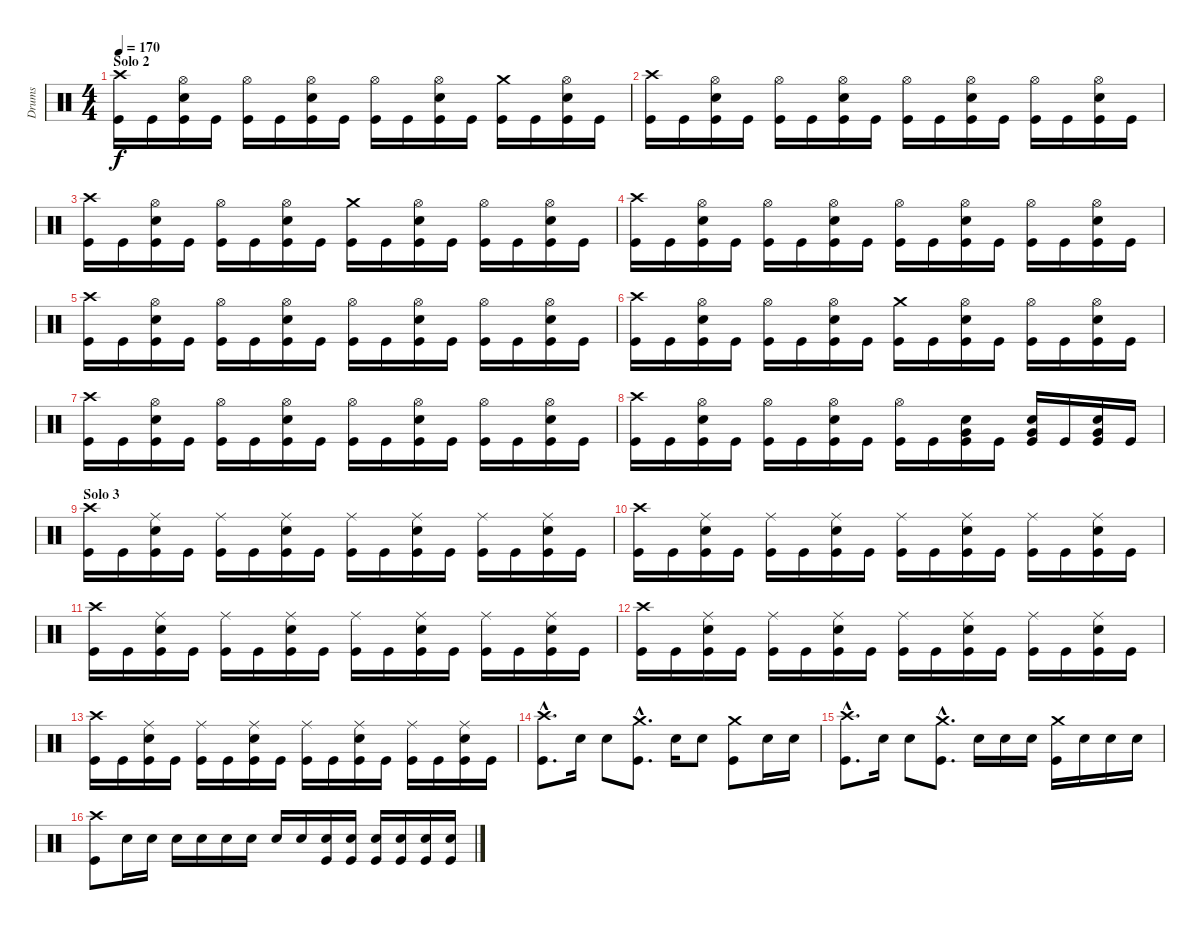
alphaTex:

\track ("Drums" "Drums") {instrument percussion}
\staff {score}
\articulation defaults
\ts (4 4)
\section ("" "Solo 2")
\tempo 170
\clef neutral
\ks c
("Crash high (hit)" "Kick (hit)").16{dy f} "Kick (hit)".16 ("Hi-Hat (open)" "Electric Snare (hit)" "Kick (hit)").16 "Kick (hit)".16 ("Hi-Hat (open)" "Kick (hit)").16 "Kick (hit)".16 ("Hi-Hat (open)" "Electric Snare (hit)" "Kick (hit)").16 "Kick (hit)".16 ("Hi-Hat (open)" "Kick (hit)").16 "Kick (hit)".16 ("Hi-Hat (open)" "Electric Snare (hit)" "Kick (hit)").16 "Kick (hit)".16 ("Crash medium (hit)" "Kick (hit)").16 "Kick (hit)".16 ("Hi-Hat (open)" "Electric Snare (hit)" "Kick (hit)").16 "Kick (hit)".16 |
("Crash high (hit)" "Kick (hit)").16 "Kick (hit)".16 ("Hi-Hat (open)" "Electric Snare (hit)" "Kick (hit)").16 "Kick (hit)".16 ("Hi-Hat (open)" "Kick (hit)").16 "Kick (hit)".16 ("Hi-Hat (open)" "Electric Snare (hit)" "Kick (hit)").16 "Kick (hit)".16 ("Hi-Hat (open)" "Kick (hit)").16 "Kick (hit)".16 ("Hi-Hat (open)" "Electric Snare (hit)" "Kick (hit)").16 "Kick (hit)".16 ("Hi-Hat (open)" "Kick (hit)").16 "Kick (hit)".16 ("Hi-Hat (open)" "Electric Snare (hit)" "Kick (hit)").16 "Kick (hit)".16 |
("Crash high (hit)" "Kick (hit)").16 "Kick (hit)".16 ("Hi-Hat (open)" "Electric Snare (hit)" "Kick (hit)").16 "Kick (hit)".16 ("Hi-Hat (open)" "Kick (hit)").16 "Kick (hit)".16 ("Hi-Hat (open)" "Electric Snare (hit)" "Kick (hit)").16 "Kick (hit)".16 ("Crash medium (hit)" "Kick (hit)").16 "Kick (hit)".16 ("Hi-Hat (open)" "Electric Snare (hit)" "Kick (hit)").16 "Kick (hit)".16 ("Hi-Hat (open)" "Kick (hit)").16 "Kick (hit)".16 ("Hi-Hat (open)" "Electric Snare (hit)" "Kick (hit)").16 "Kick (hit)".16 |
("Crash high (hit)" "Kick (hit)").16 "Kick (hit)".16 ("Hi-Hat (open)" "Electric Snare (hit)" "Kick (hit)").16 "Kick (hit)".16 ("Hi-Hat (open)" "Kick (hit)").16 "Kick (hit)".16 ("Hi-Hat (open)" "Electric Snare (hit)" "Kick (hit)").16 "Kick (hit)".16 ("Hi-Hat (open)" "Kick (hit)").16 "Kick (hit)".16 ("Hi-Hat (open)" "Electric Snare (hit)" "Kick (hit)").16 "Kick (hit)".16 ("Hi-Hat (open)" "Kick (hit)").16 "Kick (hit)".16 ("Hi-Hat (open)" "Electric Snare (hit)" "Kick (hit)").16 "Kick (hit)".16 |
("Crash high (hit)" "Kick (hit)").16 "Kick (hit)".16 ("Hi-Hat (open)" "Electric Snare (hit)" "Kick (hit)").16 "Kick (hit)".16 ("Hi-Hat (open)" "Kick (hit)").16 "Kick (hit)".16 ("Hi-Hat (open)" "Electric Snare (hit)" "Kick (hit)").16 "Kick (hit)".16 ("Hi-Hat (open)" "Kick (hit)").16 "Kick (hit)".16 ("Hi-Hat (open)" "Electric Snare (hit)" "Kick (hit)").16 "Kick (hit)".16 ("Hi-Hat (open)" "Kick (hit)").16 "Kick (hit)".16 ("Hi-Hat (open)" "Electric Snare (hit)" "Kick (hit)").16 "Kick (hit)".16 |
("Crash high (hit)" "Kick (hit)").16 "Kick (hit)".16 ("Hi-Hat (open)" "Electric Snare (hit)" "Kick (hit)").16 "Kick (hit)".16 ("Hi-Hat (open)" "Kick (hit)").16 "Kick (hit)".16 ("Hi-Hat (open)" "Electric Snare (hit)" "Kick (hit)").16 "Kick (hit)".16 ("Crash medium (hit)" "Kick (hit)").16 "Kick (hit)".16 ("Hi-Hat (open)" "Electric Snare (hit)" "Kick (hit)").16 "Kick (hit)".16 ("Hi-Hat (open)" "Kick (hit)").16 "Kick (hit)".16 ("Hi-Hat (open)" "Electric Snare (hit)" "Kick (hit)").16 "Kick (hit)".16 |
("Crash high (hit)" "Kick (hit)").16 "Kick (hit)".16 ("Hi-Hat (open)" "Electric Snare (hit)" "Kick (hit)").16 "Kick (hit)".16 ("Hi-Hat (open)" "Kick (hit)").16 "Kick (hit)".16 ("Hi-Hat (open)" "Electric Snare (hit)" "Kick (hit)").16 "Kick (hit)".16 ("Hi-Hat (open)" "Kick (hit)").16 "Kick (hit)".16 ("Hi-Hat (open)" "Electric Snare (hit)" "Kick (hit)").16 "Kick (hit)".16 ("Hi-Hat (open)" "Kick (hit)").16 "Kick (hit)".16 ("Hi-Hat (open)" "Electric Snare (hit)" "Kick (hit)").16 "Kick (hit)".16 |
("Crash high (hit)" "Kick (hit)").16 "Kick (hit)".16 ("Hi-Hat (open)" "Electric Snare (hit)" "Kick (hit)").16 "Kick (hit)".16 ("Hi-Hat (open)" "Kick (hit)").16 "Kick (hit)".16 ("Hi-Hat (open)" "Electric Snare (hit)" "Kick (hit)").16 "Kick (hit)".16 ("Hi-Hat (open)" "Kick (hit)").16 "Kick (hit)".16 ("Very Low Tom (hit)" "Electric Snare (hit)" "Kick (hit)").16 "Kick (hit)".16 ("Very Low Tom (hit)" "Electric Snare (hit)" "Kick (hit)").16 "Kick (hit)".16 ("Very Low Tom (hit)" "Electric Snare (hit)" "Kick (hit)").16 "Kick (hit)".16 |
\section ("" "Solo 3")
("Crash high (hit)" "Kick (hit)").16 "Kick (hit)".16 ("Ride (middle)" "Electric Snare (hit)" "Kick (hit)").16 "Kick (hit)".16 ("Ride (middle)" "Kick (hit)").16 "Kick (hit)".16 ("Ride (middle)" "Electric Snare (hit)" "Kick (hit)").16 "Kick (hit)".16 ("Ride (middle)" "Kick (hit)").16 "Kick (hit)".16 ("Ride (middle)" "Electric Snare (hit)" "Kick (hit)").16 "Kick (hit)".16 ("Ride (middle)" "Kick (hit)").16 "Kick (hit)".16 ("Ride (middle)" "Electric Snare (hit)" "Kick (hit)").16 "Kick (hit)".16 |
("Crash high (hit)" "Kick (hit)").16 "Kick (hit)".16 ("Ride (middle)" "Electric Snare (hit)" "Kick (hit)").16 "Kick (hit)".16 ("Ride (middle)" "Kick (hit)").16 "Kick (hit)".16 ("Ride (middle)" "Electric Snare (hit)" "Kick (hit)").16 "Kick (hit)".16 ("Ride (middle)" "Kick (hit)").16 "Kick (hit)".16 ("Ride (middle)" "Electric Snare (hit)" "Kick (hit)").16 "Kick (hit)".16 ("Ride (middle)" "Kick (hit)").16 "Kick (hit)".16 ("Ride (middle)" "Electric Snare (hit)" "Kick (hit)").16 "Kick (hit)".16 |
("Crash high (hit)" "Kick (hit)").16 "Kick (hit)".16 ("Ride (middle)" "Electric Snare (hit)" "Kick (hit)").16 "Kick (hit)".16 ("Ride (middle)" "Kick (hit)").16 "Kick (hit)".16 ("Ride (middle)" "Electric Snare (hit)" "Kick (hit)").16 "Kick (hit)".16 ("Ride (middle)" "Kick (hit)").16 "Kick (hit)".16 ("Ride (middle)" "Electric Snare (hit)" "Kick (hit)").16 "Kick (hit)".16 ("Ride (middle)" "Kick (hit)").16 "Kick (hit)".16 ("Ride (middle)" "Electric Snare (hit)" "Kick (hit)").16 "Kick (hit)".16 |
("Crash high (hit)" "Kick (hit)").16 "Kick (hit)".16 ("Ride (middle)" "Electric Snare (hit)" "Kick (hit)").16 "Kick (hit)".16 ("Ride (middle)" "Kick (hit)").16 "Kick (hit)".16 ("Ride (middle)" "Electric Snare (hit)" "Kick (hit)").16 "Kick (hit)".16 ("Ride (middle)" "Kick (hit)").16 "Kick (hit)".16 ("Ride (middle)" "Electric Snare (hit)" "Kick (hit)").16 "Kick (hit)".16 ("Ride (middle)" "Kick (hit)").16 "Kick (hit)".16 ("Ride (middle)" "Electric Snare (hit)" "Kick (hit)").16 "Kick (hit)".16 |
("Crash high (hit)" "Kick (hit)").16 "Kick (hit)".16 ("Ride (middle)" "Electric Snare (hit)" "Kick (hit)").16 "Kick (hit)".16 ("Ride (middle)" "Kick (hit)").16 "Kick (hit)".16 ("Ride (middle)" "Electric Snare (hit)" "Kick (hit)").16 "Kick (hit)".16 ("Ride (middle)" "Kick (hit)").16 "Kick (hit)".16 ("Ride (middle)" "Electric Snare (hit)" "Kick (hit)").16 "Kick (hit)".16 ("Ride (middle)" "Kick (hit)").16 "Kick (hit)".16 ("Ride (middle)" "Electric Snare (hit)" "Kick (hit)").16 "Kick (hit)".16 |
("Crash high (hit)"{hac} "Kick (hit)"{hac}).8{d} "Electric Snare (hit)".16 "Electric Snare (hit)".8 ("Crash medium (hit)"{hac} "Kick (hit)"{hac}).8{d} "Electric Snare (hit)".16 "Electric Snare (hit)".8 ("Crash medium (hit)" "Kick (hit)").8 "Electric Snare (hit)".16 "Electric Snare (hit)".16 |
("Crash high (hit)"{hac} "Kick (hit)"{hac}).8{d} "Electric Snare (hit)".16 "Electric Snare (hit)".8 ("Crash medium (hit)"{hac} "Kick (hit)"{hac}).8{d} "Electric Snare (hit)".16 "Electric Snare (hit)".16 "Electric Snare (hit)".16 ("Crash medium (hit)" "Kick (hit)").16 "Electric Snare (hit)".16 "Electric Snare (hit)".16 "Electric Snare (hit)".16 |
("Crash high (hit)" "Kick (hit)").8 "Electric Snare (hit)".16 "Electric Snare (hit)".16 "Electric Snare (hit)".16 "Electric Snare (hit)".16 "Electric Snare (hit)".16 "Electric Snare (hit)".16 "Electric Snare (hit)".16 "Electric Snare (hit)".16 ("Electric Snare (hit)" "Kick (hit)").16 ("Electric Snare (hit)" "Kick (hit)").16 ("Electric Snare (hit)" "Kick (hit)").16 ("Electric Snare (hit)" "Kick (hit)").16 ("Electric Snare (hit)" "Kick (hit)").16 ("Electric Snare (hit)" "Kick (hit)").16
